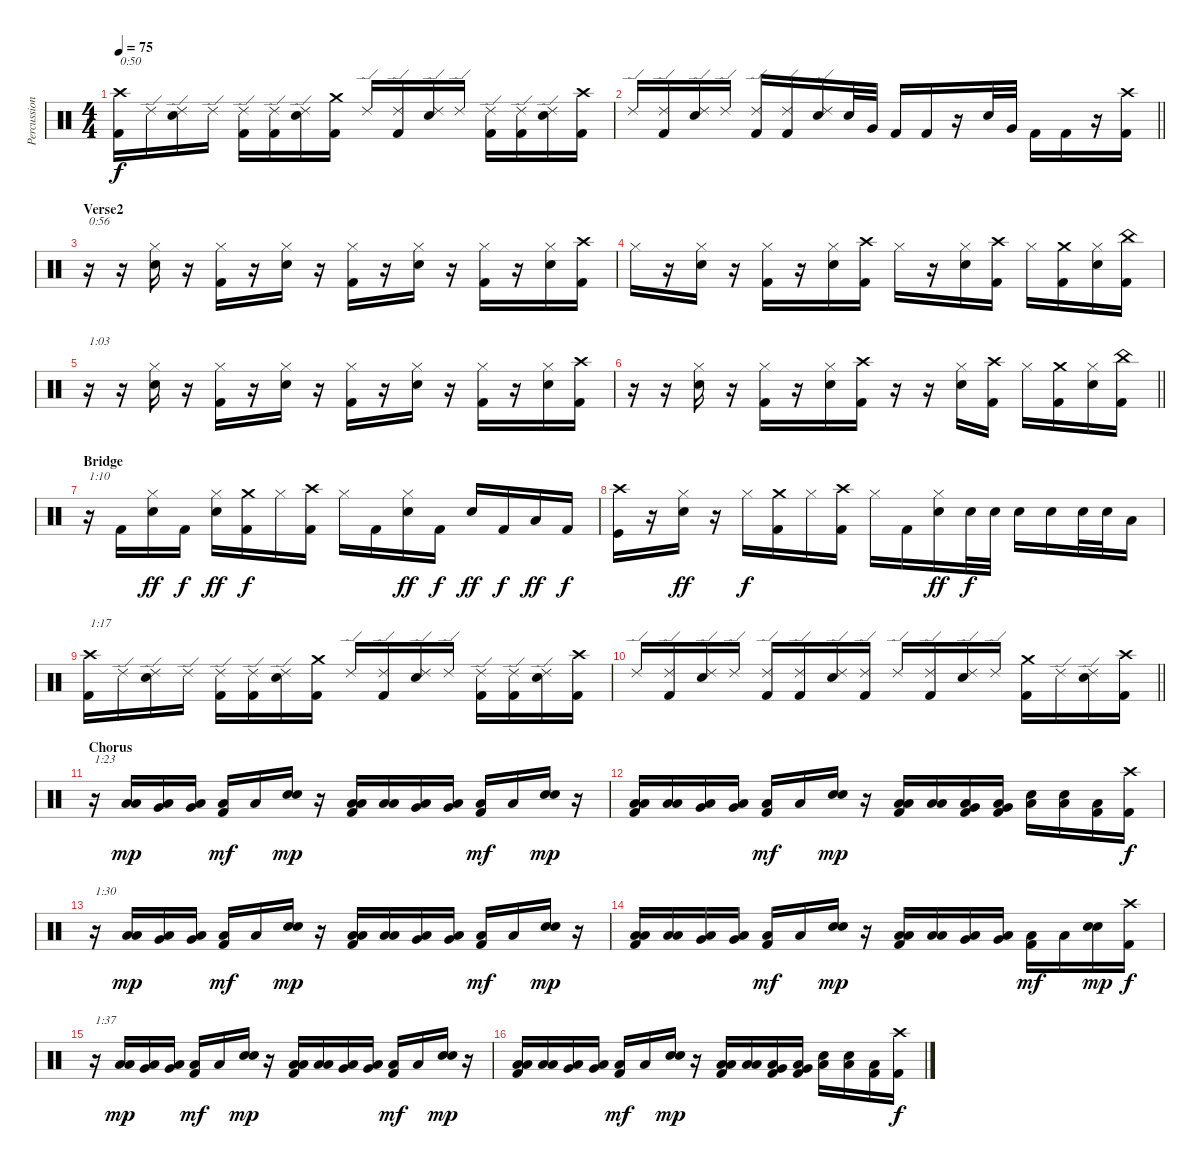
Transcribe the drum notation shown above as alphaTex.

\track ("Percussion" "Percussion") {instrument percussion}
\staff {score}
\articulation defaults
\ts (4 4)
\tempo 75
\clef neutral
\ks c
("Crash high (hit)" "Kick (hit) 2").16{txt "0:50" dy f} "Ride (edge) 2".16 ("Ride (edge) 2" "Electric Snare (hit)").16 "Ride (edge) 2".16 ("Ride (edge) 2" "Kick (hit) 2").16 ("Ride (edge) 2" "Kick (hit) 2").16 ("Ride (edge) 2" "Electric Snare (hit)").16 ("Crash medium (hit)" "Kick (hit) 2").16 "Ride (edge) 2".16 ("Ride (edge) 2" "Kick (hit) 2").16 ("Ride (edge) 2" "Electric Snare (hit)").16 "Ride (edge) 2".16 ("Ride (edge) 2" "Kick (hit) 2").16 ("Ride (edge) 2" "Kick (hit) 2").16 ("Ride (edge) 2" "Electric Snare (hit)").16 ("Crash high (hit)" "Kick (hit) 2").16 |
\barLineRight lightlight "Ride (edge) 2".16
("Ride (edge) 2" "Kick (hit) 2").16 ("Ride (edge) 2" "Electric Snare (hit)").16 "Ride (edge) 2".16 ("Ride (edge) 2" "Kick (hit) 2").16 ("Ride (edge) 2" "Kick (hit) 2").16 ("Ride (edge) 2" "Electric Snare (hit)").16 "Electric Snare (hit)".32 "Very Low Tom (hit)".32 "Kick (hit) 2".16 "Kick (hit) 2".16 r.16 "Electric Snare (hit)".32 "Very Low Tom (hit)".32 "Kick (hit) 2".16 "Kick (hit) 2".16 r.16 ("Crash high (hit)" "Kick (hit) 2").16 |
\section ("" "Verse2")
r.16{txt "0:56"} r.16 ("Hi-Hat (closed)" "Electric Snare (hit)").16 r.16 ("Hi-Hat (closed)" "Kick (hit) 2").16 r.16 ("Hi-Hat (closed)" "Electric Snare (hit)").16 r.16 ("Hi-Hat (closed)" "Kick (hit) 2").16 r.16 ("Hi-Hat (closed)" "Electric Snare (hit)").16 r.16 ("Hi-Hat (closed)" "Kick (hit) 2").16 r.16 ("Hi-Hat (closed)" "Electric Snare (hit)").16 ("Crash high (hit)" "Kick (hit) 2").16 |
"Hi-Hat (closed)".16 r.16 ("Hi-Hat (closed)" "Electric Snare (hit)").16 r.16 ("Hi-Hat (closed)" "Kick (hit) 2").16 r.16 ("Hi-Hat (closed)" "Electric Snare (hit)").16 ("Crash high (hit)" "Kick (hit) 2").16 "Hi-Hat (closed)".16 r.16 ("Hi-Hat (closed)" "Electric Snare (hit)").16 ("Crash high (hit)" "Kick (hit) 2").16 "Hi-Hat (closed)".16 ("Crash medium (hit)" "Kick (hit) 2").16 ("Hi-Hat (closed)" "Electric Snare (hit)").16 ("China (hit)" "Kick (hit) 2").16 |
r.16{txt "1:03"} r.16 ("Hi-Hat (closed)" "Electric Snare (hit)").16 r.16 ("Hi-Hat (closed)" "Kick (hit) 2").16 r.16 ("Hi-Hat (closed)" "Electric Snare (hit)").16 r.16 ("Hi-Hat (closed)" "Kick (hit) 2").16 r.16 ("Hi-Hat (closed)" "Electric Snare (hit)").16 r.16 ("Hi-Hat (closed)" "Kick (hit) 2").16 r.16 ("Hi-Hat (closed)" "Electric Snare (hit)").16 ("Crash high (hit)" "Kick (hit) 2").16 |
\barLineRight lightlight
r.16 r.16 ("Hi-Hat (closed)" "Electric Snare (hit)").16 r.16 ("Hi-Hat (closed)" "Kick (hit) 2").16 r.16 ("Hi-Hat (closed)" "Electric Snare (hit)").16 ("Crash high (hit)" "Kick (hit) 2").16 r.16 r.16 ("Hi-Hat (closed)" "Electric Snare (hit)").16 ("Crash high (hit)" "Kick (hit) 2").16 "Hi-Hat (closed)".16 ("Crash medium (hit)" "Kick (hit) 2").16 ("Hi-Hat (closed)" "Electric Snare (hit)").16 ("China (hit)" "Kick (hit) 2").16 |
\section ("" "Bridge")
r.16{txt "1:10"} "Kick (hit) 2".16 ("Hi-Hat (closed)" "Electric Snare (hit)").16{dy ff} "Kick (hit) 2".16{dy f} ("Hi-Hat (closed)" "Electric Snare (hit)").16{dy ff} ("Crash medium (hit)" "Kick (hit) 2").16{dy f} "Hi-Hat (closed)".16 ("Crash high (hit)" "Kick (hit) 2").16 "Hi-Hat (closed)".16 "Kick (hit) 2".16 ("Hi-Hat (closed)" "Electric Snare (hit)").16{dy ff} "Kick (hit) 2".16{dy f} "Electric Snare (hit)".16{dy ff} "Kick (hit) 2".16{dy f} "Low Floor Tom (hit)".16{dy ff} "Kick (hit) 2".16{dy f} |
("Crash high (hit)" "Kick (hit)").16 r.16 ("Hi-Hat (closed)" "Electric Snare (hit)").16{dy ff} r.16 "Hi-Hat (closed)".16{dy f} ("Crash medium (hit)" "Kick (hit) 2").16 "Hi-Hat (closed)".16 ("Crash high (hit)" "Kick (hit) 2").16 "Hi-Hat (closed)".16 "Kick (hit) 2".16 ("Hi-Hat (closed)" "Electric Snare (hit)").16{dy ff} "Electric Snare (hit)".32{dy f} "Electric Snare (hit)".32 "Electric Snare (hit)".16 "Electric Snare (hit)".16 "Electric Snare (hit)".32 "Electric Snare (hit)".32 "Low Tom (hit)".16 |
("Crash high (hit)" "Kick (hit) 2").16{txt "1:17"} "Ride (edge) 2".16 ("Ride (edge) 2" "Electric Snare (hit)").16 "Ride (edge) 2".16 ("Ride (edge) 2" "Kick (hit) 2").16 ("Ride (edge) 2" "Kick (hit) 2").16 ("Ride (edge) 2" "Electric Snare (hit)").16 ("Crash medium (hit)" "Kick (hit) 2").16 "Ride (edge) 2".16 ("Ride (edge) 2" "Kick (hit) 2").16 ("Ride (edge) 2" "Electric Snare (hit)").16 "Ride (edge) 2".16 ("Ride (edge) 2" "Kick (hit) 2").16 ("Ride (edge) 2" "Kick (hit) 2").16 ("Ride (edge) 2" "Electric Snare (hit)").16 ("Crash high (hit)" "Kick (hit) 2").16 |
\barLineRight lightlight "Ride (edge) 2".16
("Ride (edge) 2" "Kick (hit) 2").16 ("Ride (edge) 2" "Electric Snare (hit)").16 "Ride (edge) 2".16 ("Ride (edge) 2" "Kick (hit) 2").16 ("Ride (edge) 2" "Kick (hit) 2").16 ("Ride (edge) 2" "Electric Snare (hit)").16 ("Ride (edge) 2" "Kick (hit) 2").16 "Ride (edge) 2".16 ("Ride (edge) 2" "Kick (hit) 2").16 ("Ride (edge) 2" "Electric Snare (hit)").16 "Ride (edge) 2".16 ("Crash medium (hit)" "Kick (hit) 2").16 "Ride (edge) 2".16 ("Ride (edge) 2" "Electric Snare (hit)").16 ("Crash high (hit)" "Kick (hit) 2").16 |
\section ("" "Chorus")
r.16{txt "1:23"} ("Low Tom (hit)" "Low Floor Tom (hit)").16{dy mp} ("Very Low Tom (hit)" "Low Floor Tom (hit)").16 ("Very Low Tom (hit)" "Low Floor Tom (hit)").16 ("Low Floor Tom (hit)" "Kick (hit) 2").16{dy mf} "Low Floor Tom (hit)".16 ("Snare (hit) 2" "Electric Snare (hit)").16{dy mp} r.16 ("Low Tom (hit)" "Low Floor Tom (hit)" "Kick (hit) 2").16 ("Low Tom (hit)" "Low Floor Tom (hit)").16 ("Very Low Tom (hit)" "Low Floor Tom (hit)").16 ("Very Low Tom (hit)" "Low Floor Tom (hit)").16 ("Low Floor Tom (hit)" "Kick (hit) 2").16{dy mf} "Low Floor Tom (hit)".16 ("Snare (hit) 2" "Electric Snare (hit)").16{dy mp} r.16 |
("Low Tom (hit)" "Low Floor Tom (hit)" "Kick (hit) 2").16 ("Low Tom (hit)" "Low Floor Tom (hit)").16 ("Very Low Tom (hit)" "Low Floor Tom (hit)").16 ("Very Low Tom (hit)" "Low Floor Tom (hit)").16 ("Low Floor Tom (hit)" "Kick (hit) 2").16{dy mf} "Low Floor Tom (hit)".16 ("Snare (hit) 2" "Electric Snare (hit)").16{dy mp} r.16 ("Low Tom (hit)" "Low Floor Tom (hit)" "Kick (hit) 2").16 ("Low Tom (hit)" "Low Floor Tom (hit)").16 ("Very Low Tom (hit)" "Low Floor Tom (hit)" "Kick (hit) 2").16 ("Very Low Tom (hit)" "Low Floor Tom (hit)" "Kick (hit) 2").16 ("Electric Snare (hit)" "Low Floor Tom (hit)").16 ("Electric Snare (hit)" "Low Floor Tom (hit)").16 ("Low Floor Tom (hit)" "Kick (hit) 2").16 ("Crash high (hit)" "Kick (hit) 2").16{dy f} |
r.16{txt "1:30"} ("Low Tom (hit)" "Low Floor Tom (hit)").16{dy mp} ("Very Low Tom (hit)" "Low Floor Tom (hit)").16 ("Very Low Tom (hit)" "Low Floor Tom (hit)").16 ("Low Floor Tom (hit)" "Kick (hit) 2").16{dy mf} "Low Floor Tom (hit)".16 ("Snare (hit) 2" "Electric Snare (hit)").16{dy mp} r.16 ("Low Tom (hit)" "Low Floor Tom (hit)" "Kick (hit) 2").16 ("Low Tom (hit)" "Low Floor Tom (hit)").16 ("Very Low Tom (hit)" "Low Floor Tom (hit)").16 ("Very Low Tom (hit)" "Low Floor Tom (hit)").16 ("Low Floor Tom (hit)" "Kick (hit) 2").16{dy mf} "Low Floor Tom (hit)".16 ("Snare (hit) 2" "Electric Snare (hit)").16{dy mp} r.16 |
("Low Tom (hit)" "Low Floor Tom (hit)" "Kick (hit) 2").16 ("Low Tom (hit)" "Low Floor Tom (hit)").16 ("Very Low Tom (hit)" "Low Floor Tom (hit)").16 ("Very Low Tom (hit)" "Low Floor Tom (hit)").16 ("Low Floor Tom (hit)" "Kick (hit) 2").16{dy mf} "Low Floor Tom (hit)".16 ("Snare (hit) 2" "Electric Snare (hit)").16{dy mp} r.16 ("Low Tom (hit)" "Low Floor Tom (hit)" "Kick (hit) 2").16 ("Low Tom (hit)" "Low Floor Tom (hit)").16 ("Very Low Tom (hit)" "Low Floor Tom (hit)").16 ("Very Low Tom (hit)" "Low Floor Tom (hit)").16 ("Low Floor Tom (hit)" "Kick (hit) 2").16{dy mf} "Low Floor Tom (hit)".16 ("Snare (hit) 2" "Electric Snare (hit)").16{dy mp} ("Crash high (hit)" "Kick (hit) 2").16{dy f} |
r.16{txt "1:37"} ("Low Tom (hit)" "Low Floor Tom (hit)").16{dy mp} ("Very Low Tom (hit)" "Low Floor Tom (hit)").16 ("Very Low Tom (hit)" "Low Floor Tom (hit)").16 ("Low Floor Tom (hit)" "Kick (hit) 2").16{dy mf} "Low Floor Tom (hit)".16 ("Snare (hit) 2" "Electric Snare (hit)").16{dy mp} r.16 ("Low Tom (hit)" "Low Floor Tom (hit)" "Kick (hit) 2").16 ("Low Tom (hit)" "Low Floor Tom (hit)").16 ("Very Low Tom (hit)" "Low Floor Tom (hit)").16 ("Very Low Tom (hit)" "Low Floor Tom (hit)").16 ("Low Floor Tom (hit)" "Kick (hit) 2").16{dy mf} "Low Floor Tom (hit)".16 ("Snare (hit) 2" "Electric Snare (hit)").16{dy mp} r.16 |
("Low Tom (hit)" "Low Floor Tom (hit)" "Kick (hit) 2").16 ("Low Tom (hit)" "Low Floor Tom (hit)").16 ("Very Low Tom (hit)" "Low Floor Tom (hit)").16 ("Very Low Tom (hit)" "Low Floor Tom (hit)").16 ("Low Floor Tom (hit)" "Kick (hit) 2").16{dy mf} "Low Floor Tom (hit)".16 ("Snare (hit) 2" "Electric Snare (hit)").16{dy mp} r.16 ("Low Tom (hit)" "Low Floor Tom (hit)" "Kick (hit) 2").16 ("Low Tom (hit)" "Low Floor Tom (hit)").16 ("Very Low Tom (hit)" "Low Floor Tom (hit)" "Kick (hit) 2").16 ("Very Low Tom (hit)" "Low Floor Tom (hit)" "Kick (hit) 2").16 ("Electric Snare (hit)" "Low Floor Tom (hit)").16 ("Electric Snare (hit)" "Low Floor Tom (hit)").16 ("Low Floor Tom (hit)" "Kick (hit) 2").16 ("Crash high (hit)" "Kick (hit) 2").16{dy f}
